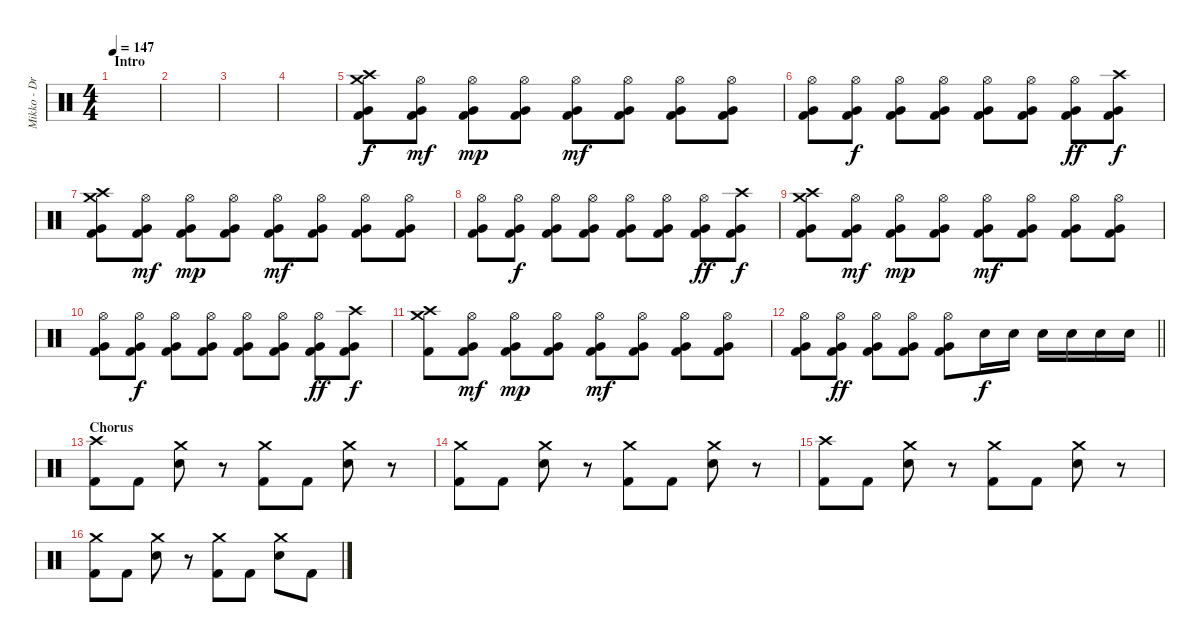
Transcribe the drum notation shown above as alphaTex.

\track ("Mikko - Drums" "Mikko - Dr") {instrument percussion}
\staff {score}
\articulation defaults
\ts (4 4)
\section ("" "Intro")
\tempo 147
\clef neutral
\ks c
|
|
|
|
("Crash medium (hit)" "Crash high (hit)" "Very Low Tom (hit)" "Kick (hit) 2").8 ("Hi-Hat (open)" "Very Low Tom (hit)" "Kick (hit) 2").8{dy mf} ("Hi-Hat (open)" "Very Low Tom (hit)" "Kick (hit) 2").8{dy mp} ("Hi-Hat (open)" "Very Low Tom (hit)" "Kick (hit) 2").8 ("Hi-Hat (open)" "Very Low Tom (hit)" "Kick (hit) 2").8{dy mf} ("Hi-Hat (open)" "Very Low Tom (hit)" "Kick (hit) 2").8 ("Hi-Hat (open)" "Very Low Tom (hit)" "Kick (hit) 2").8 ("Hi-Hat (open)" "Very Low Tom (hit)" "Kick (hit) 2").8 |
("Hi-Hat (open)" "Very Low Tom (hit)" "Kick (hit) 2").8 ("Hi-Hat (open)" "Very Low Tom (hit)" "Kick (hit) 2").8{dy f} ("Hi-Hat (open)" "Very Low Tom (hit)" "Kick (hit) 2").8 ("Hi-Hat (open)" "Very Low Tom (hit)" "Kick (hit) 2").8 ("Hi-Hat (open)" "Very Low Tom (hit)" "Kick (hit) 2").8 ("Hi-Hat (open)" "Very Low Tom (hit)" "Kick (hit) 2").8 ("Hi-Hat (open)" "Very Low Tom (hit)" "Kick (hit) 2").8{dy ff} ("Crash high (hit)" "Very Low Tom (hit)" "Kick (hit) 2").8{dy f} |
("Crash medium (hit)" "Crash high (hit)" "Very Low Tom (hit)" "Kick (hit) 2").8 ("Hi-Hat (open)" "Very Low Tom (hit)" "Kick (hit) 2").8{dy mf} ("Hi-Hat (open)" "Very Low Tom (hit)" "Kick (hit) 2").8{dy mp} ("Hi-Hat (open)" "Very Low Tom (hit)" "Kick (hit) 2").8 ("Hi-Hat (open)" "Very Low Tom (hit)" "Kick (hit) 2").8{dy mf} ("Hi-Hat (open)" "Very Low Tom (hit)" "Kick (hit) 2").8 ("Hi-Hat (open)" "Very Low Tom (hit)" "Kick (hit) 2").8 ("Hi-Hat (open)" "Very Low Tom (hit)" "Kick (hit) 2").8 |
("Hi-Hat (open)" "Very Low Tom (hit)" "Kick (hit) 2").8 ("Hi-Hat (open)" "Very Low Tom (hit)" "Kick (hit) 2").8{dy f} ("Hi-Hat (open)" "Very Low Tom (hit)" "Kick (hit) 2").8 ("Hi-Hat (open)" "Very Low Tom (hit)" "Kick (hit) 2").8 ("Hi-Hat (open)" "Very Low Tom (hit)" "Kick (hit) 2").8 ("Hi-Hat (open)" "Very Low Tom (hit)" "Kick (hit) 2").8 ("Hi-Hat (open)" "Very Low Tom (hit)" "Kick (hit) 2").8{dy ff} ("Crash high (hit)" "Very Low Tom (hit)" "Kick (hit) 2").8{dy f} |
("Crash medium (hit)" "Crash high (hit)" "Very Low Tom (hit)" "Kick (hit) 2").8 ("Hi-Hat (open)" "Very Low Tom (hit)" "Kick (hit) 2").8{dy mf} ("Hi-Hat (open)" "Very Low Tom (hit)" "Kick (hit) 2").8{dy mp} ("Hi-Hat (open)" "Very Low Tom (hit)" "Kick (hit) 2").8 ("Hi-Hat (open)" "Very Low Tom (hit)" "Kick (hit) 2").8{dy mf} ("Hi-Hat (open)" "Very Low Tom (hit)" "Kick (hit) 2").8 ("Hi-Hat (open)" "Very Low Tom (hit)" "Kick (hit) 2").8 ("Hi-Hat (open)" "Very Low Tom (hit)" "Kick (hit) 2").8 |
("Hi-Hat (open)" "Very Low Tom (hit)" "Kick (hit) 2").8 ("Hi-Hat (open)" "Very Low Tom (hit)" "Kick (hit) 2").8{dy f} ("Hi-Hat (open)" "Very Low Tom (hit)" "Kick (hit) 2").8 ("Hi-Hat (open)" "Very Low Tom (hit)" "Kick (hit) 2").8 ("Hi-Hat (open)" "Very Low Tom (hit)" "Kick (hit) 2").8 ("Hi-Hat (open)" "Very Low Tom (hit)" "Kick (hit) 2").8 ("Hi-Hat (open)" "Very Low Tom (hit)" "Kick (hit) 2").8{dy ff} ("Crash high (hit)" "Very Low Tom (hit)" "Kick (hit) 2").8{dy f} |
("Crash medium (hit)" "Crash high (hit)" "Kick (hit) 2").8 ("Hi-Hat (open)" "Very Low Tom (hit)" "Kick (hit) 2").8{dy mf} ("Hi-Hat (open)" "Very Low Tom (hit)" "Kick (hit) 2").8{dy mp} ("Hi-Hat (open)" "Very Low Tom (hit)" "Kick (hit) 2").8 ("Hi-Hat (open)" "Very Low Tom (hit)" "Kick (hit) 2").8{dy mf} ("Hi-Hat (open)" "Very Low Tom (hit)" "Kick (hit) 2").8 ("Hi-Hat (open)" "Very Low Tom (hit)" "Kick (hit) 2").8 ("Hi-Hat (open)" "Very Low Tom (hit)" "Kick (hit) 2").8 |
\barLineRight lightlight
("Hi-Hat (open)" "Very Low Tom (hit)" "Kick (hit) 2").8 ("Hi-Hat (open)" "Very Low Tom (hit)" "Kick (hit) 2").8{dy ff} ("Hi-Hat (open)" "Very Low Tom (hit)" "Kick (hit) 2").8 ("Hi-Hat (open)" "Very Low Tom (hit)" "Kick (hit) 2").8 ("Hi-Hat (open)" "Very Low Tom (hit)" "Kick (hit) 2").8 "Snare (hit) 2".16{dy f} "Snare (hit) 2".16 "Snare (hit) 2".16 "Snare (hit) 2".16 "Snare (hit) 2".16 "Snare (hit) 2".16 |
\section ("" "Chorus")
("Crash high (hit)" "Kick (hit) 2").8 "Kick (hit) 2".8 ("Crash medium (hit)" "Snare (hit) 2").8 r.8 ("Crash medium (hit)" "Kick (hit) 2").8 "Kick (hit) 2".8 ("Crash medium (hit)" "Snare (hit) 2").8 r.8 |
("Crash medium (hit)" "Kick (hit) 2").8 "Kick (hit) 2".8 ("Crash medium (hit)" "Snare (hit) 2").8 r.8 ("Crash medium (hit)" "Kick (hit) 2").8 "Kick (hit) 2".8 ("Crash medium (hit)" "Snare (hit) 2").8 r.8 |
("Crash high (hit)" "Kick (hit) 2").8 "Kick (hit) 2".8 ("Crash medium (hit)" "Snare (hit) 2").8 r.8 ("Crash medium (hit)" "Kick (hit) 2").8 "Kick (hit) 2".8 ("Crash medium (hit)" "Snare (hit) 2").8 r.8 |
("Crash medium (hit)" "Kick (hit) 2").8 "Kick (hit) 2".8 ("Crash medium (hit)" "Snare (hit) 2").8 r.8 ("Crash medium (hit)" "Kick (hit) 2").8 "Kick (hit) 2".8 ("Crash medium (hit)" "Snare (hit) 2").8 "Kick (hit) 2".8
